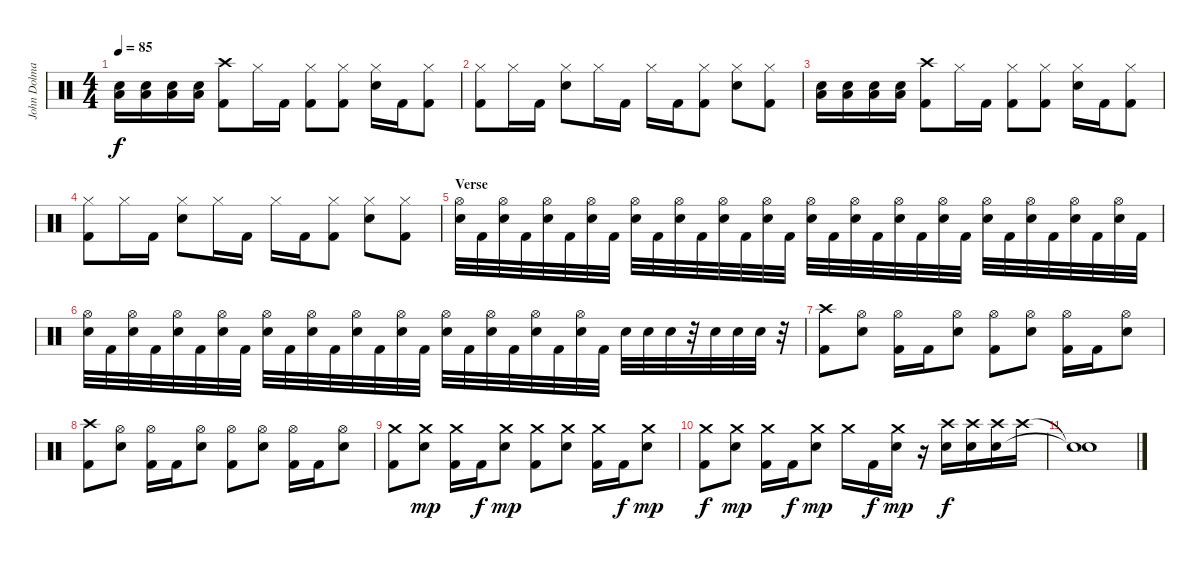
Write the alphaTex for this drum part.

\track ("John Dolmayan" "John Dolma") {instrument percussion}
\staff {score}
\articulation defaults
\ts (4 4)
\tempo 85
\clef neutral
\ks c
("Low Floor Tom (hit)" "Snare (hit) 2").16{dy f} ("Low Floor Tom (hit)" "Snare (hit) 2").16 ("Low Floor Tom (hit)" "Snare (hit) 2").16 ("Low Floor Tom (hit)" "Snare (hit) 2").16 ("Crash high (hit)" "Kick (hit) 2").8 "Hi-Hat (closed)".16 "Kick (hit) 2".16 ("Hi-Hat (closed)" "Kick (hit) 2").8 ("Hi-Hat (closed)" "Kick (hit) 2").8 ("Hi-Hat (closed)" "Snare (hit) 2").16 "Kick (hit) 2".16 ("Hi-Hat (closed)" "Kick (hit) 2").8 |
("Hi-Hat (closed)" "Kick (hit) 2").8 "Hi-Hat (closed)".16 "Kick (hit) 2".16 ("Hi-Hat (closed)" "Snare (hit) 2").8 "Hi-Hat (closed)".16 "Kick (hit) 2".16 "Hi-Hat (closed)".16 "Kick (hit) 2".16 ("Hi-Hat (closed)" "Kick (hit) 2").8 ("Hi-Hat (closed)" "Snare (hit) 2").8 ("Hi-Hat (closed)" "Kick (hit) 2").8 |
("Low Floor Tom (hit)" "Snare (hit) 2").16 ("Low Floor Tom (hit)" "Snare (hit) 2").16 ("Low Floor Tom (hit)" "Snare (hit) 2").16 ("Low Floor Tom (hit)" "Snare (hit) 2").16 ("Crash high (hit)" "Kick (hit) 2").8 "Hi-Hat (closed)".16 "Kick (hit) 2".16 ("Hi-Hat (closed)" "Kick (hit) 2").8 ("Hi-Hat (closed)" "Kick (hit) 2").8 ("Hi-Hat (closed)" "Snare (hit) 2").16 "Kick (hit) 2".16 ("Hi-Hat (closed)" "Kick (hit) 2").8 |
("Hi-Hat (closed)" "Kick (hit) 2").8 "Hi-Hat (closed)".16 "Kick (hit) 2".16 ("Hi-Hat (closed)" "Snare (hit) 2").8 "Hi-Hat (closed)".16 "Kick (hit) 2".16 "Hi-Hat (closed)".16 "Kick (hit) 2".16 ("Hi-Hat (closed)" "Kick (hit) 2").8 ("Hi-Hat (closed)" "Snare (hit) 2").8 ("Hi-Hat (closed)" "Kick (hit) 2").8 |
\section ("" "Verse")
("Hi-Hat (open)" "Snare (hit) 2").32 "Kick (hit) 2".32 ("Hi-Hat (open)" "Snare (hit) 2").32 "Kick (hit) 2".32 ("Hi-Hat (open)" "Snare (hit) 2").32 "Kick (hit) 2".32 ("Hi-Hat (open)" "Snare (hit) 2").32 "Kick (hit) 2".32 ("Hi-Hat (open)" "Snare (hit) 2").32 "Kick (hit) 2".32 ("Hi-Hat (open)" "Snare (hit) 2").32 "Kick (hit) 2".32 ("Hi-Hat (open)" "Snare (hit) 2").32 "Kick (hit) 2".32 ("Hi-Hat (open)" "Snare (hit) 2").32 "Kick (hit) 2".32 ("Hi-Hat (open)" "Snare (hit) 2").32 "Kick (hit) 2".32 ("Hi-Hat (open)" "Snare (hit) 2").32 "Kick (hit) 2".32 ("Hi-Hat (open)" "Snare (hit) 2").32 "Kick (hit) 2".32 ("Hi-Hat (open)" "Snare (hit) 2").32 "Kick (hit) 2".32 ("Hi-Hat (open)" "Snare (hit) 2").32 "Kick (hit) 2".32 ("Hi-Hat (open)" "Snare (hit) 2").32 "Kick (hit) 2".32 ("Hi-Hat (open)" "Snare (hit) 2").32 "Kick (hit) 2".32 ("Hi-Hat (open)" "Snare (hit) 2").32 "Kick (hit) 2".32 |
("Hi-Hat (open)" "Snare (hit) 2").32 "Kick (hit) 2".32 ("Hi-Hat (open)" "Snare (hit) 2").32 "Kick (hit) 2".32 ("Hi-Hat (open)" "Snare (hit) 2").32 "Kick (hit) 2".32 ("Hi-Hat (open)" "Snare (hit) 2").32 "Kick (hit) 2".32 ("Hi-Hat (open)" "Snare (hit) 2").32 "Kick (hit) 2".32 ("Hi-Hat (open)" "Snare (hit) 2").32 "Kick (hit) 2".32 ("Hi-Hat (open)" "Snare (hit) 2").32 "Kick (hit) 2".32 ("Hi-Hat (open)" "Snare (hit) 2").32 "Kick (hit) 2".32 ("Hi-Hat (open)" "Snare (hit) 2").32 "Kick (hit) 2".32 ("Hi-Hat (open)" "Snare (hit) 2").32 "Kick (hit) 2".32 ("Hi-Hat (open)" "Snare (hit) 2").32 "Kick (hit) 2".32 ("Hi-Hat (open)" "Snare (hit) 2").32 "Kick (hit) 2".32 "Snare (hit) 2".32 "Snare (hit) 2".32 "Snare (hit) 2".32 r.32 "Snare (hit) 2".32 "Snare (hit) 2".32 "Snare (hit) 2".32 r.32 |
("Crash high (hit)" "Kick (hit) 2").8 ("Hi-Hat (open)" "Snare (hit) 2").8 ("Hi-Hat (open)" "Kick (hit) 2").16 "Kick (hit) 2".16 ("Hi-Hat (open)" "Snare (hit) 2").8 ("Hi-Hat (open)" "Kick (hit) 2").8 ("Hi-Hat (open)" "Snare (hit) 2").8 ("Hi-Hat (open)" "Kick (hit) 2").16 "Kick (hit) 2".16 ("Hi-Hat (open)" "Snare (hit) 2").8 |
("Crash high (hit)" "Kick (hit) 2").8 ("Hi-Hat (open)" "Snare (hit) 2").8 ("Hi-Hat (open)" "Kick (hit) 2").16 "Kick (hit) 2".16 ("Hi-Hat (open)" "Snare (hit) 2").8 ("Hi-Hat (open)" "Kick (hit) 2").8 ("Hi-Hat (open)" "Snare (hit) 2").8 ("Hi-Hat (open)" "Kick (hit) 2").16 "Kick (hit) 2".16 ("Hi-Hat (open)" "Snare (hit) 2").8 |
("Crash medium (hit)" "Kick (hit) 2").8 ("Crash medium (hit)" "Snare (hit) 2").8{dy mp} ("Crash medium (hit)" "Kick (hit) 2").16 "Kick (hit) 2".16{dy f} ("Crash medium (hit)" "Snare (hit) 2").8{dy mp} ("Crash medium (hit)" "Kick (hit) 2").8 ("Crash medium (hit)" "Snare (hit) 2").8 ("Crash medium (hit)" "Kick (hit) 2").16 "Kick (hit) 2".16{dy f} ("Crash medium (hit)" "Snare (hit) 2").8{dy mp} |
("Crash medium (hit)" "Kick (hit) 2").8{dy f} ("Crash medium (hit)" "Snare (hit) 2").8{dy mp} ("Crash medium (hit)" "Kick (hit) 2").16 "Kick (hit) 2".16{dy f} ("Crash medium (hit)" "Snare (hit) 2").8{dy mp} "Crash medium (hit)".16 "Kick (hit) 2".16{dy f} ("Crash medium (hit)" "Snare (hit) 2").16{dy mp} r.16 ("Crash high (hit)" "Snare (hit) 2").16{dy f} ("Crash high (hit)" "Snare (hit) 2").16 ("Crash high (hit)" "Snare (hit) 2").16 "Crash high (hit)".16 |
("Snare (hit)"{t} "Snare (hit)"{t}).1
